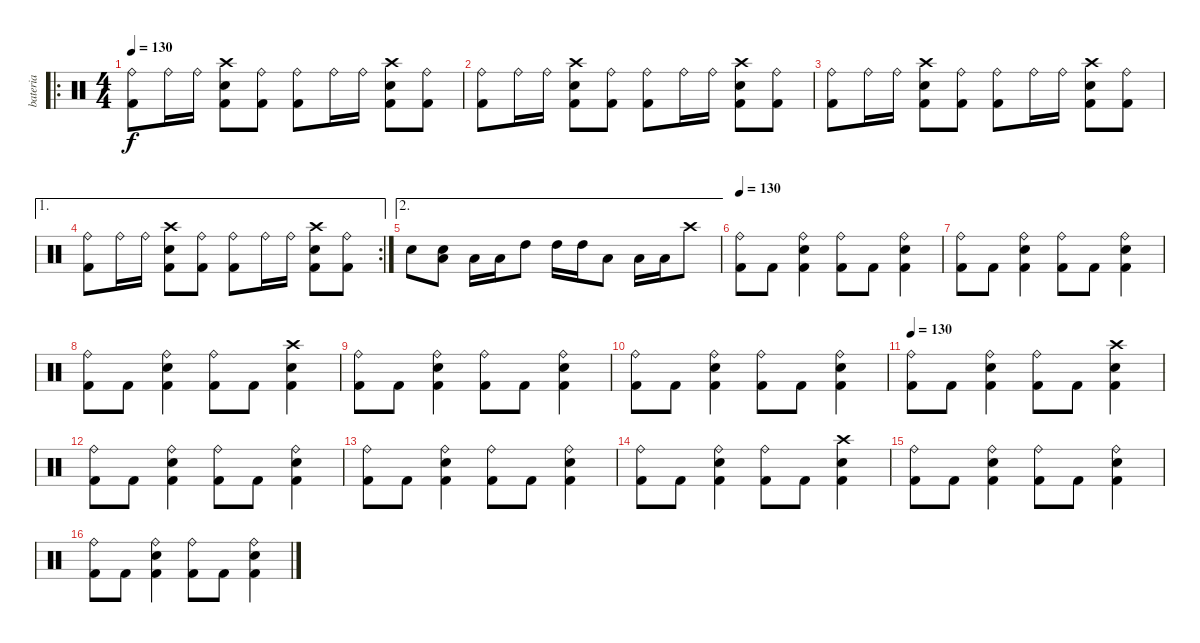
\track ("bateria" "bateria") {instrument percussion}
\staff {score}
\articulation defaults
\ro
\ts (4 4)
\tempo 130
\clef neutral
\ks c
("Ride (bell)" "Kick (hit) 2").8{dy f} "Ride (bell)".16 "Ride (bell)".16 ("Snare (hit) 2" "Crash high (hit)" "Kick (hit) 2").8 ("Ride (bell)" "Kick (hit) 2").8 ("Ride (bell)" "Kick (hit) 2").8 "Ride (bell)".16 "Ride (bell)".16 ("Snare (hit) 2" "Crash high (hit)" "Kick (hit) 2").8 ("Ride (bell)" "Kick (hit) 2").8 |
("Ride (bell)" "Kick (hit) 2").8 "Ride (bell)".16 "Ride (bell)".16 ("Snare (hit) 2" "Crash high (hit)" "Kick (hit) 2").8 ("Ride (bell)" "Kick (hit) 2").8 ("Ride (bell)" "Kick (hit) 2").8 "Ride (bell)".16 "Ride (bell)".16 ("Snare (hit) 2" "Crash high (hit)" "Kick (hit) 2").8 ("Ride (bell)" "Kick (hit) 2").8 |
("Ride (bell)" "Kick (hit) 2").8 "Ride (bell)".16 "Ride (bell)".16 ("Snare (hit) 2" "Crash high (hit)" "Kick (hit) 2").8 ("Ride (bell)" "Kick (hit) 2").8 ("Ride (bell)" "Kick (hit) 2").8 "Ride (bell)".16 "Ride (bell)".16 ("Snare (hit) 2" "Crash high (hit)" "Kick (hit) 2").8 ("Ride (bell)" "Kick (hit) 2").8 |
\ae 1
\rc 2
("Ride (bell)" "Kick (hit) 2").8 "Ride (bell)".16 "Ride (bell)".16 ("Snare (hit) 2" "Crash high (hit)" "Kick (hit) 2").8 ("Ride (bell)" "Kick (hit) 2").8 ("Ride (bell)" "Kick (hit) 2").8 "Ride (bell)".16 "Ride (bell)".16 ("Snare (hit) 2" "Crash high (hit)" "Kick (hit) 2").8 ("Ride (bell)" "Kick (hit) 2").8 |
\ae 2 "Snare (hit) 2".8
("Low Tom (hit)" "Snare (hit) 2").8 "Low Tom (hit)".16 "Low Tom (hit)".16 "High Tom (hit)".8 "High Tom (hit)".16 "High Tom (hit)".16 "Low Tom (hit)".8 "Low Tom (hit)".16 "Low Tom (hit)".16 "Crash high (hit)".8 |
\tempo 130
("Ride (bell)" "Kick (hit) 2").8 "Kick (hit) 2".8 ("Ride (bell)" "Snare (hit) 2" "Kick (hit) 2").4 ("Ride (bell)" "Kick (hit) 2").8 "Kick (hit) 2".8 ("Ride (bell)" "Snare (hit) 2" "Kick (hit) 2").4 |
("Ride (bell)" "Kick (hit) 2").8 "Kick (hit) 2".8 ("Ride (bell)" "Snare (hit) 2" "Kick (hit) 2").4 ("Ride (bell)" "Kick (hit) 2").8 "Kick (hit) 2".8 ("Ride (bell)" "Snare (hit) 2" "Kick (hit) 2").4 |
("Ride (bell)" "Kick (hit) 2").8 "Kick (hit) 2".8 ("Ride (bell)" "Snare (hit) 2" "Kick (hit) 2").4 ("Ride (bell)" "Kick (hit) 2").8 "Kick (hit) 2".8 ("Crash high (hit)" "Snare (hit) 2" "Kick (hit) 2").4 |
("Ride (bell)" "Kick (hit) 2").8 "Kick (hit) 2".8 ("Ride (bell)" "Snare (hit) 2" "Kick (hit) 2").4 ("Ride (bell)" "Kick (hit) 2").8 "Kick (hit) 2".8 ("Ride (bell)" "Snare (hit) 2" "Kick (hit) 2").4 |
("Ride (bell)" "Kick (hit) 2").8 "Kick (hit) 2".8 ("Ride (bell)" "Snare (hit) 2" "Kick (hit) 2").4 ("Ride (bell)" "Kick (hit) 2").8 "Kick (hit) 2".8 ("Ride (bell)" "Snare (hit) 2" "Kick (hit) 2").4 |
\tempo 130
("Ride (bell)" "Kick (hit) 2").8 "Kick (hit) 2".8 ("Ride (bell)" "Snare (hit) 2" "Kick (hit) 2").4 ("Ride (bell)" "Kick (hit) 2").8 "Kick (hit) 2".8 ("Crash high (hit)" "Snare (hit) 2" "Kick (hit) 2").4 |
("Ride (bell)" "Kick (hit) 2").8 "Kick (hit) 2".8 ("Ride (bell)" "Snare (hit) 2" "Kick (hit) 2").4 ("Ride (bell)" "Kick (hit) 2").8 "Kick (hit) 2".8 ("Ride (bell)" "Snare (hit) 2" "Kick (hit) 2").4 |
("Ride (bell)" "Kick (hit) 2").8 "Kick (hit) 2".8 ("Ride (bell)" "Snare (hit) 2" "Kick (hit) 2").4 ("Ride (bell)" "Kick (hit) 2").8 "Kick (hit) 2".8 ("Ride (bell)" "Snare (hit) 2" "Kick (hit) 2").4 |
("Ride (bell)" "Kick (hit) 2").8 "Kick (hit) 2".8 ("Ride (bell)" "Snare (hit) 2" "Kick (hit) 2").4 ("Ride (bell)" "Kick (hit) 2").8 "Kick (hit) 2".8 ("Crash high (hit)" "Snare (hit) 2" "Kick (hit) 2").4 |
("Ride (bell)" "Kick (hit) 2").8 "Kick (hit) 2".8 ("Ride (bell)" "Snare (hit) 2" "Kick (hit) 2").4 ("Ride (bell)" "Kick (hit) 2").8 "Kick (hit) 2".8 ("Ride (bell)" "Snare (hit) 2" "Kick (hit) 2").4 |
("Ride (bell)" "Kick (hit) 2").8 "Kick (hit) 2".8 ("Ride (bell)" "Snare (hit) 2" "Kick (hit) 2").4 ("Ride (bell)" "Kick (hit) 2").8 "Kick (hit) 2".8 ("Ride (bell)" "Snare (hit) 2" "Kick (hit) 2").4
